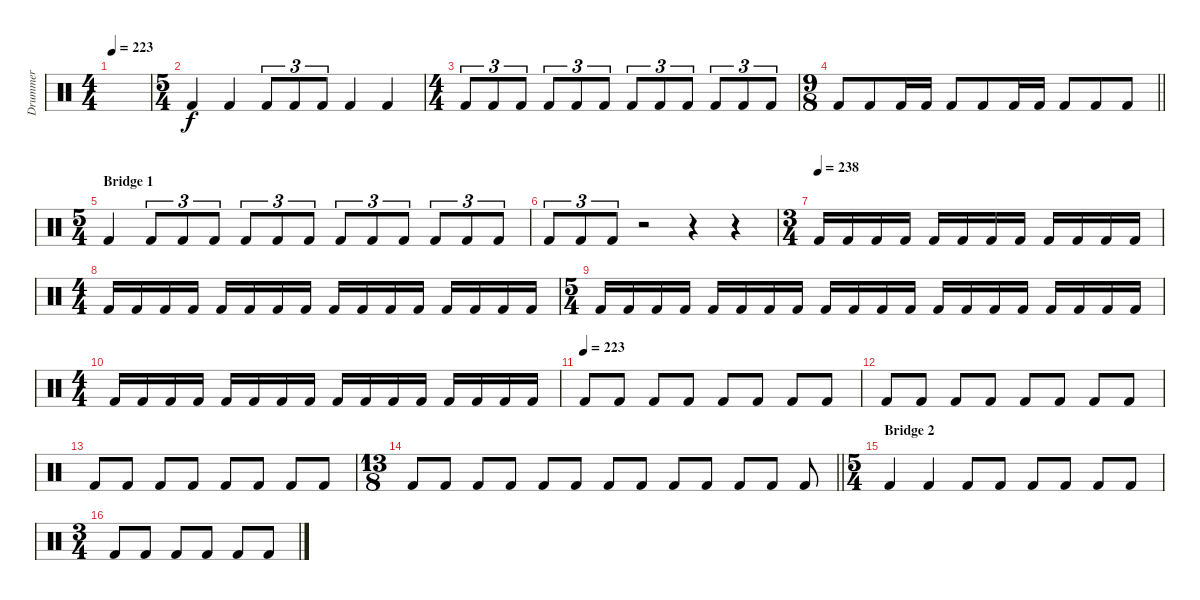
\track ("Drummer" "Drummer") {instrument percussion}
\staff {score}
\articulation defaults
\ts (4 4)
\tempo 223
\clef neutral
\ks c
|
\ts (5 4)
"Kick (hit) 2".4 "Kick (hit) 2".4 "Kick (hit) 2".8{tu (3 2)} "Kick (hit) 2".8{tu (3 2)} "Kick (hit) 2".8{tu (3 2)} "Kick (hit) 2".4 "Kick (hit) 2".4 |
\ts (4 4)
"Kick (hit) 2".8{tu (3 2)} "Kick (hit) 2".8{tu (3 2)} "Kick (hit) 2".8{tu (3 2)} "Kick (hit) 2".8{tu (3 2)} "Kick (hit) 2".8{tu (3 2)} "Kick (hit) 2".8{tu (3 2)} "Kick (hit) 2".8{tu (3 2)} "Kick (hit) 2".8{tu (3 2)} "Kick (hit) 2".8{tu (3 2)} "Kick (hit) 2".8{tu (3 2)} "Kick (hit) 2".8{tu (3 2)} "Kick (hit) 2".8{tu (3 2)} |
\ts (9 8)
\barLineRight lightlight "Kick (hit) 2".8 "Kick (hit) 2".8 "Kick (hit) 2".16 "Kick (hit) 2".16 "Kick (hit) 2".8 "Kick (hit) 2".8 "Kick (hit) 2".16 "Kick (hit) 2".16 "Kick (hit) 2".8 "Kick (hit) 2".8 "Kick (hit) 2".8
|
\ts (5 4)
\section ("" "Bridge 1")
"Kick (hit) 2".4 "Kick (hit) 2".8{tu (3 2)} "Kick (hit) 2".8{tu (3 2)} "Kick (hit) 2".8{tu (3 2)} "Kick (hit) 2".8{tu (3 2)} "Kick (hit) 2".8{tu (3 2)} "Kick (hit) 2".8{tu (3 2)} "Kick (hit) 2".8{tu (3 2)} "Kick (hit) 2".8{tu (3 2)} "Kick (hit) 2".8{tu (3 2)} "Kick (hit) 2".8{tu (3 2)} "Kick (hit) 2".8{tu (3 2)} "Kick (hit) 2".8{tu (3 2)} |
"Kick (hit) 2".8{tu (3 2)} "Kick (hit) 2".8{tu (3 2)} "Kick (hit) 2".8{tu (3 2)} r.2 r.4 r.4 |
\ts (3 4)
\tempo (238)
"Kick (hit) 2".16 "Kick (hit) 2".16 "Kick (hit) 2".16 "Kick (hit) 2".16 "Kick (hit) 2".16 "Kick (hit) 2".16 "Kick (hit) 2".16 "Kick (hit) 2".16 "Kick (hit) 2".16 "Kick (hit) 2".16 "Kick (hit) 2".16 "Kick (hit) 2".16 |
\ts (4 4)
"Kick (hit) 2".16 "Kick (hit) 2".16 "Kick (hit) 2".16 "Kick (hit) 2".16 "Kick (hit) 2".16 "Kick (hit) 2".16 "Kick (hit) 2".16 "Kick (hit) 2".16 "Kick (hit) 2".16 "Kick (hit) 2".16 "Kick (hit) 2".16 "Kick (hit) 2".16 "Kick (hit) 2".16 "Kick (hit) 2".16 "Kick (hit) 2".16 "Kick (hit) 2".16 |
\ts (5 4)
"Kick (hit) 2".16 "Kick (hit) 2".16 "Kick (hit) 2".16 "Kick (hit) 2".16 "Kick (hit) 2".16 "Kick (hit) 2".16 "Kick (hit) 2".16 "Kick (hit) 2".16 "Kick (hit) 2".16 "Kick (hit) 2".16 "Kick (hit) 2".16 "Kick (hit) 2".16 "Kick (hit) 2".16 "Kick (hit) 2".16 "Kick (hit) 2".16 "Kick (hit) 2".16 "Kick (hit) 2".16 "Kick (hit) 2".16 "Kick (hit) 2".16 "Kick (hit) 2".16 |
\ts (4 4)
"Kick (hit) 2".16 "Kick (hit) 2".16 "Kick (hit) 2".16 "Kick (hit) 2".16 "Kick (hit) 2".16 "Kick (hit) 2".16 "Kick (hit) 2".16 "Kick (hit) 2".16 "Kick (hit) 2".16 "Kick (hit) 2".16 "Kick (hit) 2".16 "Kick (hit) 2".16 "Kick (hit) 2".16 "Kick (hit) 2".16 "Kick (hit) 2".16 "Kick (hit) 2".16 |
\tempo (223)
"Kick (hit) 2".8 "Kick (hit) 2".8 "Kick (hit) 2".8 "Kick (hit) 2".8 "Kick (hit) 2".8 "Kick (hit) 2".8 "Kick (hit) 2".8 "Kick (hit) 2".8 |
"Kick (hit) 2".8 "Kick (hit) 2".8 "Kick (hit) 2".8 "Kick (hit) 2".8 "Kick (hit) 2".8 "Kick (hit) 2".8 "Kick (hit) 2".8 "Kick (hit) 2".8 |
"Kick (hit) 2".8 "Kick (hit) 2".8 "Kick (hit) 2".8 "Kick (hit) 2".8 "Kick (hit) 2".8 "Kick (hit) 2".8 "Kick (hit) 2".8 "Kick (hit) 2".8 |
\ts (13 8)
\barLineRight lightlight "Kick (hit) 2".8 "Kick (hit) 2".8 "Kick (hit) 2".8 "Kick (hit) 2".8 "Kick (hit) 2".8 "Kick (hit) 2".8 "Kick (hit) 2".8 "Kick (hit) 2".8 "Kick (hit) 2".8 "Kick (hit) 2".8 "Kick (hit) 2".8 "Kick (hit) 2".8 "Kick (hit) 2".8
|
\ts (5 4)
\section ("" "Bridge 2")
"Kick (hit) 2".4 "Kick (hit) 2".4 "Kick (hit) 2".8 "Kick (hit) 2".8 "Kick (hit) 2".8 "Kick (hit) 2".8 "Kick (hit) 2".8 "Kick (hit) 2".8 |
\ts (3 4)
"Kick (hit) 2".8 "Kick (hit) 2".8 "Kick (hit) 2".8 "Kick (hit) 2".8 "Kick (hit) 2".8 "Kick (hit) 2".8
